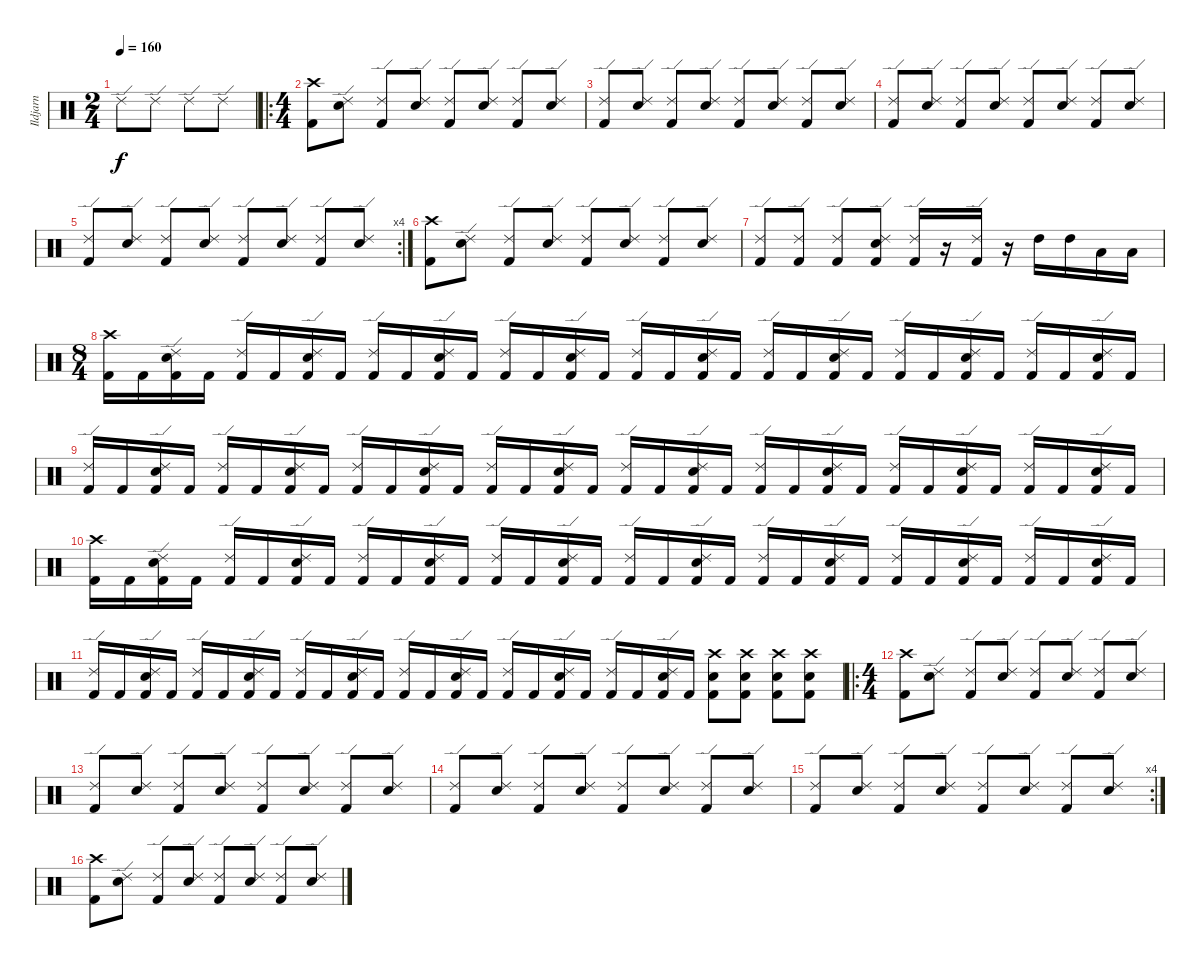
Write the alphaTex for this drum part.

\track ("Ildjarn" "Ildjarn") {instrument percussion}
\staff {score}
\articulation defaults
\ts (2 4)
\tempo 160
\clef neutral
\ks c "Ride (edge) 2".8{dy f} "Ride (edge) 2".8 "Ride (edge) 2".8 "Ride (edge) 2".8
|
\ro
\ts (4 4)
("Crash high (hit)" "Kick (hit) 2").8 ("Ride (edge) 2" "Snare (hit) 2").8 ("Ride (edge) 2" "Kick (hit) 2").8 ("Ride (edge) 2" "Snare (hit) 2").8 ("Ride (edge) 2" "Kick (hit) 2").8 ("Ride (edge) 2" "Snare (hit) 2").8 ("Ride (edge) 2" "Kick (hit) 2").8 ("Ride (edge) 2" "Snare (hit) 2").8 |
("Ride (edge) 2" "Kick (hit) 2").8 ("Ride (edge) 2" "Snare (hit) 2").8 ("Ride (edge) 2" "Kick (hit) 2").8 ("Ride (edge) 2" "Snare (hit) 2").8 ("Ride (edge) 2" "Kick (hit) 2").8 ("Ride (edge) 2" "Snare (hit) 2").8 ("Ride (edge) 2" "Kick (hit) 2").8 ("Ride (edge) 2" "Snare (hit) 2").8 |
("Ride (edge) 2" "Kick (hit) 2").8 ("Ride (edge) 2" "Snare (hit) 2").8 ("Ride (edge) 2" "Kick (hit) 2").8 ("Ride (edge) 2" "Snare (hit) 2").8 ("Ride (edge) 2" "Kick (hit) 2").8 ("Ride (edge) 2" "Snare (hit) 2").8 ("Ride (edge) 2" "Kick (hit) 2").8 ("Ride (edge) 2" "Snare (hit) 2").8 |
\rc 4
("Ride (edge) 2" "Kick (hit) 2").8 ("Ride (edge) 2" "Snare (hit) 2").8 ("Ride (edge) 2" "Kick (hit) 2").8 ("Ride (edge) 2" "Snare (hit) 2").8 ("Ride (edge) 2" "Kick (hit) 2").8 ("Ride (edge) 2" "Snare (hit) 2").8 ("Ride (edge) 2" "Kick (hit) 2").8 ("Ride (edge) 2" "Snare (hit) 2").8 |
("Crash high (hit)" "Kick (hit) 2").8 ("Ride (edge) 2" "Snare (hit) 2").8 ("Ride (edge) 2" "Kick (hit) 2").8 ("Ride (edge) 2" "Snare (hit) 2").8 ("Ride (edge) 2" "Kick (hit) 2").8 ("Ride (edge) 2" "Snare (hit) 2").8 ("Ride (edge) 2" "Kick (hit) 2").8 ("Ride (edge) 2" "Snare (hit) 2").8 |
("Ride (edge) 2" "Kick (hit) 2").8 ("Ride (edge) 2" "Kick (hit) 2").8 ("Ride (edge) 2" "Kick (hit) 2").8 ("Ride (edge) 2" "Snare (hit) 2" "Kick (hit) 2").8 ("Ride (edge) 2" "Kick (hit) 2").16 r.16 ("Ride (edge) 2" "Kick (hit) 2").16 r.16 "High Tom (hit)".16 "High Tom (hit)".16 "Low Tom (hit)".16 "Low Tom (hit)".16 |
\ts (8 4)
("Crash high (hit)" "Kick (hit) 2").16 "Kick (hit) 2".16 ("Ride (edge) 2" "Snare (hit) 2" "Kick (hit) 2").16 "Kick (hit) 2".16 ("Ride (edge) 2" "Kick (hit) 2").16 "Kick (hit) 2".16 ("Ride (edge) 2" "Snare (hit) 2" "Kick (hit) 2").16 "Kick (hit) 2".16 ("Ride (edge) 2" "Kick (hit) 2").16 "Kick (hit) 2".16 ("Ride (edge) 2" "Snare (hit) 2" "Kick (hit) 2").16 "Kick (hit) 2".16 ("Ride (edge) 2" "Kick (hit) 2").16 "Kick (hit) 2".16 ("Ride (edge) 2" "Snare (hit) 2" "Kick (hit) 2").16 "Kick (hit) 2".16 ("Ride (edge) 2" "Kick (hit) 2").16 "Kick (hit) 2".16 ("Ride (edge) 2" "Snare (hit) 2" "Kick (hit) 2").16 "Kick (hit) 2".16 ("Ride (edge) 2" "Kick (hit) 2").16 "Kick (hit) 2".16 ("Ride (edge) 2" "Snare (hit) 2" "Kick (hit) 2").16 "Kick (hit) 2".16 ("Ride (edge) 2" "Kick (hit) 2").16 "Kick (hit) 2".16 ("Ride (edge) 2" "Snare (hit) 2" "Kick (hit) 2").16 "Kick (hit) 2".16 ("Ride (edge) 2" "Kick (hit) 2").16 "Kick (hit) 2".16 ("Ride (edge) 2" "Snare (hit) 2" "Kick (hit) 2").16 "Kick (hit) 2".16 |
("Ride (edge) 2" "Kick (hit) 2").16 "Kick (hit) 2".16 ("Ride (edge) 2" "Snare (hit) 2" "Kick (hit) 2").16 "Kick (hit) 2".16 ("Ride (edge) 2" "Kick (hit) 2").16 "Kick (hit) 2".16 ("Ride (edge) 2" "Snare (hit) 2" "Kick (hit) 2").16 "Kick (hit) 2".16 ("Ride (edge) 2" "Kick (hit) 2").16 "Kick (hit) 2".16 ("Ride (edge) 2" "Snare (hit) 2" "Kick (hit) 2").16 "Kick (hit) 2".16 ("Ride (edge) 2" "Kick (hit) 2").16 "Kick (hit) 2".16 ("Ride (edge) 2" "Snare (hit) 2" "Kick (hit) 2").16 "Kick (hit) 2".16 ("Ride (edge) 2" "Kick (hit) 2").16 "Kick (hit) 2".16 ("Ride (edge) 2" "Snare (hit) 2" "Kick (hit) 2").16 "Kick (hit) 2".16 ("Ride (edge) 2" "Kick (hit) 2").16 "Kick (hit) 2".16 ("Ride (edge) 2" "Snare (hit) 2" "Kick (hit) 2").16 "Kick (hit) 2".16 ("Ride (edge) 2" "Kick (hit) 2").16 "Kick (hit) 2".16 ("Ride (edge) 2" "Snare (hit) 2" "Kick (hit) 2").16 "Kick (hit) 2".16 ("Ride (edge) 2" "Kick (hit) 2").16 "Kick (hit) 2".16 ("Ride (edge) 2" "Snare (hit) 2" "Kick (hit) 2").16 "Kick (hit) 2".16 |
("Crash high (hit)" "Kick (hit) 2").16 "Kick (hit) 2".16 ("Ride (edge) 2" "Snare (hit) 2" "Kick (hit) 2").16 "Kick (hit) 2".16 ("Ride (edge) 2" "Kick (hit) 2").16 "Kick (hit) 2".16 ("Ride (edge) 2" "Snare (hit) 2" "Kick (hit) 2").16 "Kick (hit) 2".16 ("Ride (edge) 2" "Kick (hit) 2").16 "Kick (hit) 2".16 ("Ride (edge) 2" "Snare (hit) 2" "Kick (hit) 2").16 "Kick (hit) 2".16 ("Ride (edge) 2" "Kick (hit) 2").16 "Kick (hit) 2".16 ("Ride (edge) 2" "Snare (hit) 2" "Kick (hit) 2").16 "Kick (hit) 2".16 ("Ride (edge) 2" "Kick (hit) 2").16 "Kick (hit) 2".16 ("Ride (edge) 2" "Snare (hit) 2" "Kick (hit) 2").16 "Kick (hit) 2".16 ("Ride (edge) 2" "Kick (hit) 2").16 "Kick (hit) 2".16 ("Ride (edge) 2" "Snare (hit) 2" "Kick (hit) 2").16 "Kick (hit) 2".16 ("Ride (edge) 2" "Kick (hit) 2").16 "Kick (hit) 2".16 ("Ride (edge) 2" "Snare (hit) 2" "Kick (hit) 2").16 "Kick (hit) 2".16 ("Ride (edge) 2" "Kick (hit) 2").16 "Kick (hit) 2".16 ("Ride (edge) 2" "Snare (hit) 2" "Kick (hit) 2").16 "Kick (hit) 2".16 |
("Ride (edge) 2" "Kick (hit) 2").16 "Kick (hit) 2".16 ("Ride (edge) 2" "Snare (hit) 2" "Kick (hit) 2").16 "Kick (hit) 2".16 ("Ride (edge) 2" "Kick (hit) 2").16 "Kick (hit) 2".16 ("Ride (edge) 2" "Snare (hit) 2" "Kick (hit) 2").16 "Kick (hit) 2".16 ("Ride (edge) 2" "Kick (hit) 2").16 "Kick (hit) 2".16 ("Ride (edge) 2" "Snare (hit) 2" "Kick (hit) 2").16 "Kick (hit) 2".16 ("Ride (edge) 2" "Kick (hit) 2").16 "Kick (hit) 2".16 ("Ride (edge) 2" "Snare (hit) 2" "Kick (hit) 2").16 "Kick (hit) 2".16 ("Ride (edge) 2" "Kick (hit) 2").16 "Kick (hit) 2".16 ("Ride (edge) 2" "Snare (hit) 2" "Kick (hit) 2").16 "Kick (hit) 2".16 ("Ride (edge) 2" "Kick (hit) 2").16 "Kick (hit) 2".16 ("Ride (edge) 2" "Snare (hit) 2" "Kick (hit) 2").16 "Kick (hit) 2".16 ("Crash high (hit)" "Snare (hit) 2" "Kick (hit) 2").8 ("Crash high (hit)" "Snare (hit) 2" "Kick (hit) 2").8 ("Crash high (hit)" "Snare (hit) 2" "Kick (hit) 2").8 ("Crash high (hit)" "Snare (hit) 2" "Kick (hit) 2").8 |
\ro
\ts (4 4)
("Crash high (hit)" "Kick (hit) 2").8 ("Ride (edge) 2" "Snare (hit) 2").8 ("Ride (edge) 2" "Kick (hit) 2").8 ("Ride (edge) 2" "Snare (hit) 2").8 ("Ride (edge) 2" "Kick (hit) 2").8 ("Ride (edge) 2" "Snare (hit) 2").8 ("Ride (edge) 2" "Kick (hit) 2").8 ("Ride (edge) 2" "Snare (hit) 2").8 |
("Ride (edge) 2" "Kick (hit) 2").8 ("Ride (edge) 2" "Snare (hit) 2").8 ("Ride (edge) 2" "Kick (hit) 2").8 ("Ride (edge) 2" "Snare (hit) 2").8 ("Ride (edge) 2" "Kick (hit) 2").8 ("Ride (edge) 2" "Snare (hit) 2").8 ("Ride (edge) 2" "Kick (hit) 2").8 ("Ride (edge) 2" "Snare (hit) 2").8 |
("Ride (edge) 2" "Kick (hit) 2").8 ("Ride (edge) 2" "Snare (hit) 2").8 ("Ride (edge) 2" "Kick (hit) 2").8 ("Ride (edge) 2" "Snare (hit) 2").8 ("Ride (edge) 2" "Kick (hit) 2").8 ("Ride (edge) 2" "Snare (hit) 2").8 ("Ride (edge) 2" "Kick (hit) 2").8 ("Ride (edge) 2" "Snare (hit) 2").8 |
\rc 4
("Ride (edge) 2" "Kick (hit) 2").8 ("Ride (edge) 2" "Snare (hit) 2").8 ("Ride (edge) 2" "Kick (hit) 2").8 ("Ride (edge) 2" "Snare (hit) 2").8 ("Ride (edge) 2" "Kick (hit) 2").8 ("Ride (edge) 2" "Snare (hit) 2").8 ("Ride (edge) 2" "Kick (hit) 2").8 ("Ride (edge) 2" "Snare (hit) 2").8 |
("Crash high (hit)" "Kick (hit) 2").8 ("Ride (edge) 2" "Snare (hit) 2").8 ("Ride (edge) 2" "Kick (hit) 2").8 ("Ride (edge) 2" "Snare (hit) 2").8 ("Ride (edge) 2" "Kick (hit) 2").8 ("Ride (edge) 2" "Snare (hit) 2").8 ("Ride (edge) 2" "Kick (hit) 2").8 ("Ride (edge) 2" "Snare (hit) 2").8
